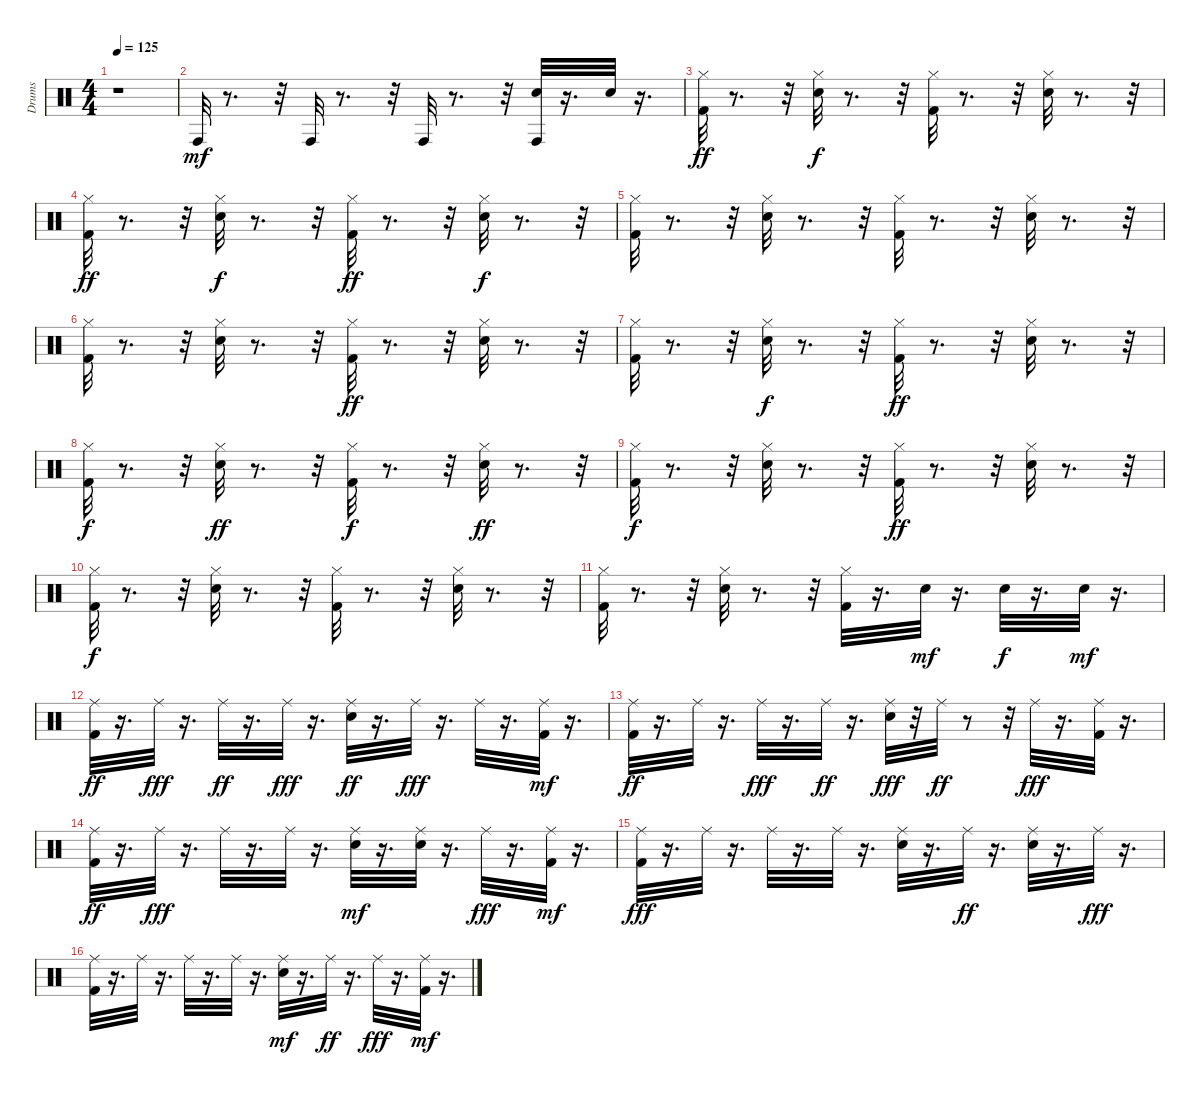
\track ("Drums" "Drums") {instrument percussion}
\staff {score}
\articulation defaults
\ts (4 4)
\tempo 125
\clef neutral
\ks c
r.1{dy mf} |
"Conga high (hit)".32 r.8{d} r.32 "Conga high (hit)".32 r.8{d} r.32 "Conga high (hit)".32 r.8{d} r.32 ("Snare (hit) 2" "Conga high (hit)").32 r.16{d} "Snare (hit) 2".32 r.16{d} |
("Hi-Hat (closed)" "Kick (hit) 2").32{dy ff} r.8{d} r.32 ("Hi-Hat (closed)" "Snare (hit) 2").32{dy f} r.8{d} r.32 ("Hi-Hat (closed)" "Kick (hit) 2").32 r.8{d} r.32 ("Hi-Hat (closed)" "Snare (hit) 2").32 r.8{d} r.32 |
("Hi-Hat (closed)" "Kick (hit) 2").32{dy ff} r.8{d} r.32 ("Snare (hit) 2" "Hi-Hat (closed)").32{dy f} r.8{d} r.32 ("Hi-Hat (closed)" "Kick (hit) 2").32{dy ff} r.8{d} r.32 ("Hi-Hat (closed)" "Snare (hit) 2").32{dy f} r.8{d} r.32 |
("Kick (hit) 2" "Hi-Hat (closed)").32 r.8{d} r.32 ("Hi-Hat (closed)" "Snare (hit) 2").32 r.8{d} r.32 ("Kick (hit) 2" "Hi-Hat (closed)").32 r.8{d} r.32 ("Hi-Hat (closed)" "Snare (hit) 2").32 r.8{d} r.32 |
("Kick (hit) 2" "Hi-Hat (closed)").32 r.8{d} r.32 ("Snare (hit) 2" "Hi-Hat (closed)").32 r.8{d} r.32 ("Kick (hit) 2" "Hi-Hat (closed)").32{dy ff} r.8{d} r.32 ("Hi-Hat (closed)" "Snare (hit) 2").32 r.8{d} r.32 |
("Hi-Hat (closed)" "Kick (hit) 2").32 r.8{d} r.32 ("Hi-Hat (closed)" "Snare (hit) 2").32{dy f} r.8{d} r.32 ("Kick (hit) 2" "Hi-Hat (closed)").32{dy ff} r.8{d} r.32 ("Snare (hit) 2" "Hi-Hat (closed)").32 r.8{d} r.32 |
("Kick (hit) 2" "Hi-Hat (closed)").32{dy f} r.8{d} r.32 ("Snare (hit) 2" "Hi-Hat (closed)").32{dy ff} r.8{d} r.32 ("Hi-Hat (closed)" "Kick (hit) 2").32{dy f} r.8{d} r.32 ("Snare (hit) 2" "Hi-Hat (closed)").32{dy ff} r.8{d} r.32 |
("Hi-Hat (closed)" "Kick (hit) 2").32{dy f} r.8{d} r.32 ("Hi-Hat (closed)" "Snare (hit) 2").32 r.8{d} r.32 ("Kick (hit) 2" "Hi-Hat (closed)").32{dy ff} r.8{d} r.32 ("Snare (hit) 2" "Hi-Hat (closed)").32 r.8{d} r.32 |
("Hi-Hat (closed)" "Kick (hit) 2").32{dy f} r.8{d} r.32 ("Snare (hit) 2" "Hi-Hat (closed)").32 r.8{d} r.32 ("Kick (hit) 2" "Hi-Hat (closed)").32 r.8{d} r.32 ("Snare (hit) 2" "Hi-Hat (closed)").32 r.8{d} r.32 |
("Kick (hit) 2" "Hi-Hat (closed)").32 r.8{d} r.32 ("Hi-Hat (closed)" "Snare (hit) 2").32 r.8{d} r.32 ("Hi-Hat (closed)" "Kick (hit) 2").32 r.16{d} "Snare (hit) 2".32{dy mf} r.16{d} "Snare (hit) 2".32{dy f} r.16{d} "Snare (hit) 2".32{dy mf} r.16{d} |
("Ride (middle)" "Kick (hit) 2").32{dy ff} r.16{d} "Ride (middle)".32{dy fff} r.16{d} "Ride (middle)".32{dy ff} r.16{d} "Ride (middle)".32{dy fff} r.16{d} ("Snare (hit) 2" "Ride (middle)").32{dy ff} r.16{d} "Ride (middle)".32{dy fff} r.16{d} "Ride (middle)".32 r.16{d} ("Ride (middle)" "Kick (hit) 2").32{dy mf} r.16{d} |
("Kick (hit) 2" "Ride (middle)").32{dy ff} r.16{d} "Ride (middle)".32 r.16{d} "Ride (middle)".32{dy fff} r.16{d} "Ride (middle)".32{dy ff} r.16{d} ("Snare (hit) 2" "Ride (middle)").32{dy fff} r.32 "Ride (middle)".32{dy ff} r.8 r.32 "Ride (middle)".32{dy fff} r.16{d} ("Kick (hit) 2" "Ride (middle)").32 r.16{d} |
("Kick (hit) 2" "Ride (middle)").32{dy ff} r.16{d} "Ride (middle)".32{dy fff} r.16{d} "Ride (middle)".32 r.16{d} "Ride (middle)".32 r.16{d} ("Ride (middle)" "Snare (hit) 2").32{dy mf} r.16{d} ("Ride (middle)" "Snare (hit) 2").32 r.16{d} "Ride (middle)".32{dy fff} r.16{d} ("Ride (middle)" "Kick (hit) 2").32{dy mf} r.16{d} |
("Ride (middle)" "Kick (hit) 2").32{dy fff} r.16{d} "Ride (middle)".32 r.16{d} "Ride (middle)".32 r.16{d} "Ride (middle)".32 r.16{d} ("Snare (hit) 2" "Ride (middle)").32 r.16{d} "Ride (middle)".32{dy ff} r.16{d} ("Ride (middle)" "Snare (hit) 2").32 r.16{d} "Ride (middle)".32{dy fff} r.16{d} |
("Kick (hit) 2" "Ride (middle)").32 r.16{d} "Ride (middle)".32 r.16{d} "Ride (middle)".32 r.16{d} "Ride (middle)".32 r.16{d} ("Ride (middle)" "Snare (hit) 2").32{dy mf} r.16{d} "Ride (middle)".32{dy ff} r.16{d} "Ride (middle)".32{dy fff} r.16{d} ("Ride (middle)" "Kick (hit) 2").32{dy mf} r.16{d}
